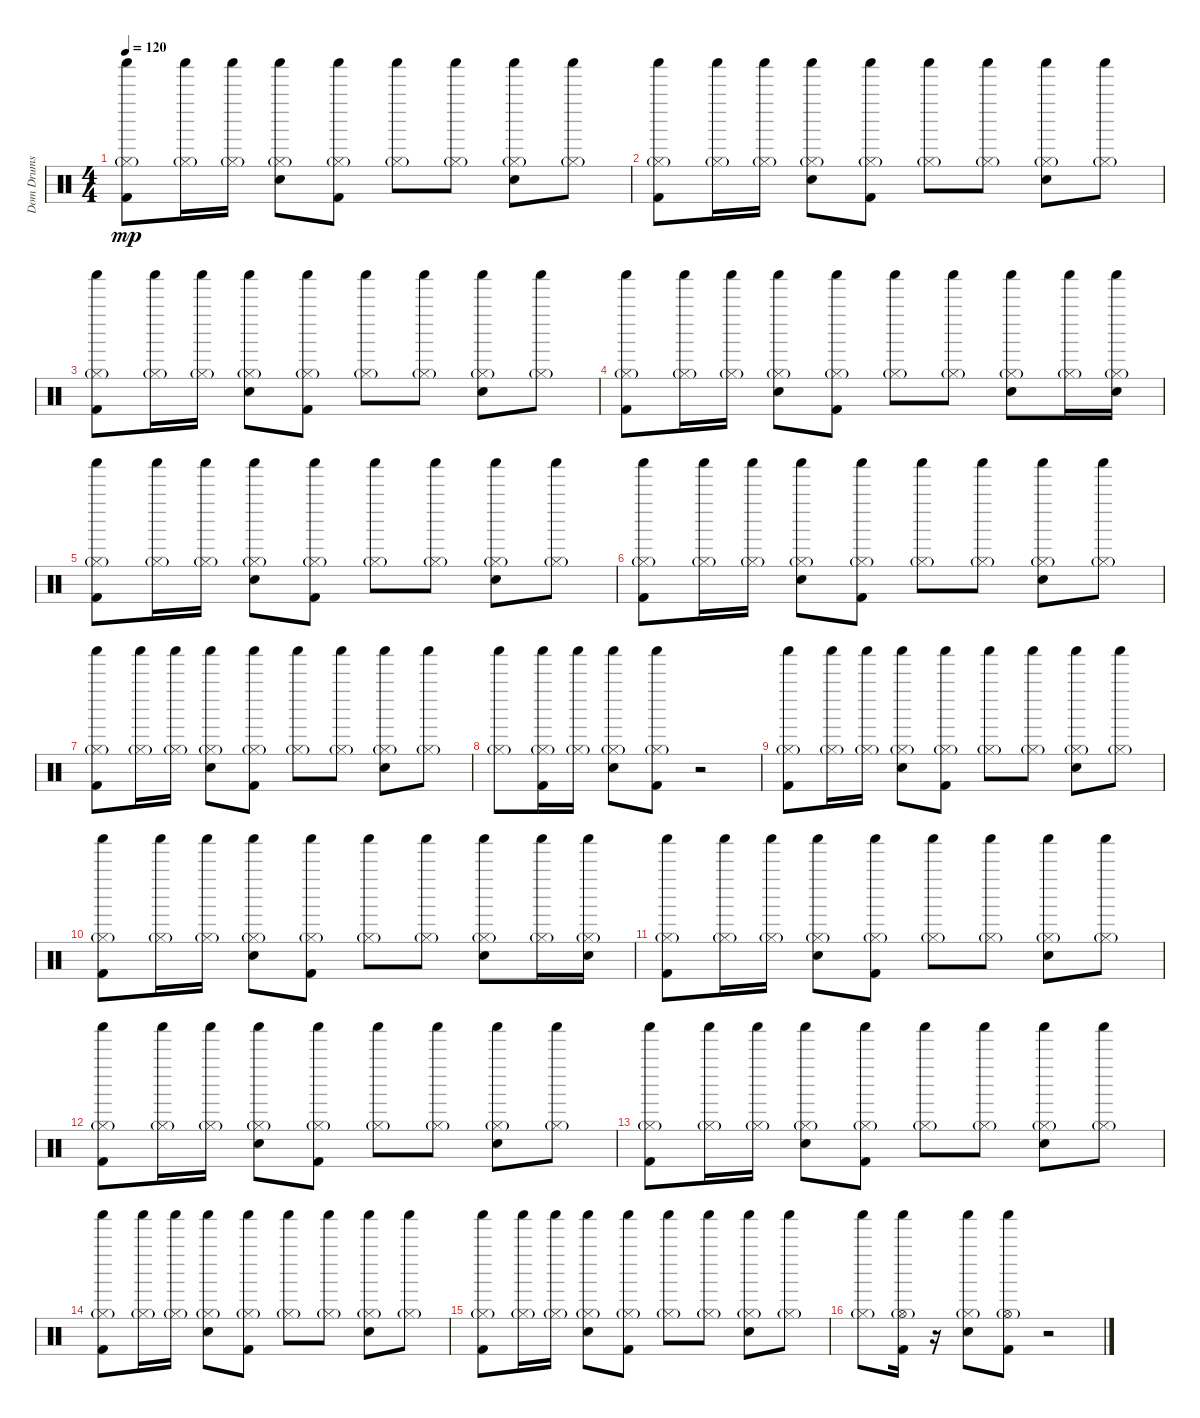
\track ("Dom Drums" "Dom Drums") {instrument percussion}
\staff {score}
\articulation defaults
\ts (4 4)
\tempo 120
\clef neutral
\ks c
("Shaker (hit)" "Hi-Hat (closed)"{g} "Kick (hit) 2").8{dy mp} ("Shaker (hit)" "Hi-Hat (closed)"{g}).16 ("Shaker (hit)" "Hi-Hat (closed)"{g}).16 ("Shaker (hit)" "Hi-Hat (closed)"{g} "Electric Snare (hit)").8 ("Shaker (hit)" "Hi-Hat (closed)"{g} "Kick (hit) 2").8 ("Shaker (hit)" "Hi-Hat (closed)"{g}).8 ("Shaker (hit)" "Hi-Hat (closed)"{g}).8 ("Shaker (hit)" "Hi-Hat (closed)"{g} "Electric Snare (hit)").8 ("Shaker (hit)" "Hi-Hat (closed)"{g}).8 |
("Shaker (hit)" "Hi-Hat (closed)"{g} "Kick (hit) 2").8 ("Shaker (hit)" "Hi-Hat (closed)"{g}).16 ("Shaker (hit)" "Hi-Hat (closed)"{g}).16 ("Shaker (hit)" "Hi-Hat (closed)"{g} "Electric Snare (hit)").8 ("Shaker (hit)" "Hi-Hat (closed)"{g} "Kick (hit) 2").8 ("Shaker (hit)" "Hi-Hat (closed)"{g}).8 ("Shaker (hit)" "Hi-Hat (closed)"{g}).8 ("Shaker (hit)" "Hi-Hat (closed)"{g} "Electric Snare (hit)").8 ("Shaker (hit)" "Hi-Hat (closed)"{g}).8 |
("Shaker (hit)" "Hi-Hat (closed)"{g} "Kick (hit) 2").8 ("Shaker (hit)" "Hi-Hat (closed)"{g}).16 ("Shaker (hit)" "Hi-Hat (closed)"{g}).16 ("Shaker (hit)" "Hi-Hat (closed)"{g} "Electric Snare (hit)").8 ("Shaker (hit)" "Hi-Hat (closed)"{g} "Kick (hit) 2").8 ("Shaker (hit)" "Hi-Hat (closed)"{g}).8 ("Shaker (hit)" "Hi-Hat (closed)"{g}).8 ("Shaker (hit)" "Hi-Hat (closed)"{g} "Electric Snare (hit)").8 ("Shaker (hit)" "Hi-Hat (closed)"{g}).8 |
("Shaker (hit)" "Hi-Hat (closed)"{g} "Kick (hit) 2").8 ("Shaker (hit)" "Hi-Hat (closed)"{g}).16 ("Shaker (hit)" "Hi-Hat (closed)"{g}).16 ("Shaker (hit)" "Hi-Hat (closed)"{g} "Electric Snare (hit)").8 ("Shaker (hit)" "Hi-Hat (closed)"{g} "Kick (hit) 2").8 ("Shaker (hit)" "Hi-Hat (closed)"{g}).8 ("Shaker (hit)" "Hi-Hat (closed)"{g}).8 ("Shaker (hit)" "Hi-Hat (closed)"{g} "Electric Snare (hit)").8 ("Shaker (hit)" "Hi-Hat (closed)"{g}).16 ("Shaker (hit)" "Hi-Hat (closed)"{g} "Electric Snare (hit)").16 |
("Shaker (hit)" "Hi-Hat (closed)"{g} "Kick (hit) 2").8 ("Shaker (hit)" "Hi-Hat (closed)"{g}).16 ("Shaker (hit)" "Hi-Hat (closed)"{g}).16 ("Shaker (hit)" "Hi-Hat (closed)"{g} "Electric Snare (hit)").8 ("Shaker (hit)" "Hi-Hat (closed)"{g} "Kick (hit) 2").8 ("Shaker (hit)" "Hi-Hat (closed)"{g}).8 ("Shaker (hit)" "Hi-Hat (closed)"{g}).8 ("Shaker (hit)" "Hi-Hat (closed)"{g} "Electric Snare (hit)").8 ("Shaker (hit)" "Hi-Hat (closed)"{g}).8 |
("Shaker (hit)" "Hi-Hat (closed)"{g} "Kick (hit) 2").8 ("Shaker (hit)" "Hi-Hat (closed)"{g}).16 ("Shaker (hit)" "Hi-Hat (closed)"{g}).16 ("Shaker (hit)" "Hi-Hat (closed)"{g} "Electric Snare (hit)").8 ("Shaker (hit)" "Hi-Hat (closed)"{g} "Kick (hit) 2").8 ("Shaker (hit)" "Hi-Hat (closed)"{g}).8 ("Shaker (hit)" "Hi-Hat (closed)"{g}).8 ("Shaker (hit)" "Hi-Hat (closed)"{g} "Electric Snare (hit)").8 ("Shaker (hit)" "Hi-Hat (closed)"{g}).8 |
("Shaker (hit)" "Hi-Hat (closed)"{g} "Kick (hit) 2").8 ("Shaker (hit)" "Hi-Hat (closed)"{g}).16 ("Shaker (hit)" "Hi-Hat (closed)"{g}).16 ("Shaker (hit)" "Hi-Hat (closed)"{g} "Electric Snare (hit)").8 ("Shaker (hit)" "Hi-Hat (closed)"{g} "Kick (hit) 2").8 ("Shaker (hit)" "Hi-Hat (closed)"{g}).8 ("Shaker (hit)" "Hi-Hat (closed)"{g}).8 ("Shaker (hit)" "Hi-Hat (closed)"{g} "Electric Snare (hit)").8 ("Shaker (hit)" "Hi-Hat (closed)"{g}).8 |
("Shaker (hit)" "Hi-Hat (closed)"{g}).8 ("Shaker (hit)" "Hi-Hat (closed)"{g} "Kick (hit) 2").16 ("Shaker (hit)" "Hi-Hat (closed)"{g}).16 ("Shaker (hit)" "Hi-Hat (closed)"{g} "Electric Snare (hit)").8 ("Shaker (hit)" "Hi-Hat (closed)"{g} "Kick (hit) 2").8 r.2 |
("Shaker (hit)" "Hi-Hat (closed)"{g} "Kick (hit) 2").8 ("Shaker (hit)" "Hi-Hat (closed)"{g}).16 ("Shaker (hit)" "Hi-Hat (closed)"{g}).16 ("Shaker (hit)" "Hi-Hat (closed)"{g} "Electric Snare (hit)").8 ("Shaker (hit)" "Hi-Hat (closed)"{g} "Kick (hit) 2").8 ("Shaker (hit)" "Hi-Hat (closed)"{g}).8 ("Shaker (hit)" "Hi-Hat (closed)"{g}).8 ("Shaker (hit)" "Hi-Hat (closed)"{g} "Electric Snare (hit)").8 ("Shaker (hit)" "Hi-Hat (closed)"{g}).8 |
("Shaker (hit)" "Hi-Hat (closed)"{g} "Kick (hit) 2").8 ("Shaker (hit)" "Hi-Hat (closed)"{g}).16 ("Shaker (hit)" "Hi-Hat (closed)"{g}).16 ("Shaker (hit)" "Hi-Hat (closed)"{g} "Electric Snare (hit)").8 ("Shaker (hit)" "Hi-Hat (closed)"{g} "Kick (hit) 2").8 ("Shaker (hit)" "Hi-Hat (closed)"{g}).8 ("Shaker (hit)" "Hi-Hat (closed)"{g}).8 ("Shaker (hit)" "Hi-Hat (closed)"{g} "Electric Snare (hit)").8 ("Shaker (hit)" "Hi-Hat (closed)"{g}).16 ("Shaker (hit)" "Hi-Hat (closed)"{g} "Electric Snare (hit)").16 |
("Shaker (hit)" "Hi-Hat (closed)"{g} "Kick (hit) 2").8 ("Shaker (hit)" "Hi-Hat (closed)"{g}).16 ("Shaker (hit)" "Hi-Hat (closed)"{g}).16 ("Shaker (hit)" "Hi-Hat (closed)"{g} "Electric Snare (hit)").8 ("Shaker (hit)" "Hi-Hat (closed)"{g} "Kick (hit) 2").8 ("Shaker (hit)" "Hi-Hat (closed)"{g}).8 ("Shaker (hit)" "Hi-Hat (closed)"{g}).8 ("Shaker (hit)" "Hi-Hat (closed)"{g} "Electric Snare (hit)").8 ("Shaker (hit)" "Hi-Hat (closed)"{g}).8 |
("Shaker (hit)" "Hi-Hat (closed)"{g} "Kick (hit) 2").8 ("Shaker (hit)" "Hi-Hat (closed)"{g}).16 ("Shaker (hit)" "Hi-Hat (closed)"{g}).16 ("Shaker (hit)" "Hi-Hat (closed)"{g} "Electric Snare (hit)").8 ("Shaker (hit)" "Hi-Hat (closed)"{g} "Kick (hit) 2").8 ("Shaker (hit)" "Hi-Hat (closed)"{g}).8 ("Shaker (hit)" "Hi-Hat (closed)"{g}).8 ("Shaker (hit)" "Hi-Hat (closed)"{g} "Electric Snare (hit)").8 ("Shaker (hit)" "Hi-Hat (closed)"{g}).8 |
("Shaker (hit)" "Hi-Hat (closed)"{g} "Kick (hit) 2").8 ("Shaker (hit)" "Hi-Hat (closed)"{g}).16 ("Shaker (hit)" "Hi-Hat (closed)"{g}).16 ("Shaker (hit)" "Hi-Hat (closed)"{g} "Electric Snare (hit)").8 ("Shaker (hit)" "Hi-Hat (closed)"{g} "Kick (hit) 2").8 ("Shaker (hit)" "Hi-Hat (closed)"{g}).8 ("Shaker (hit)" "Hi-Hat (closed)"{g}).8 ("Shaker (hit)" "Hi-Hat (closed)"{g} "Electric Snare (hit)").8 ("Shaker (hit)" "Hi-Hat (closed)"{g}).8 |
("Shaker (hit)" "Hi-Hat (closed)"{g} "Kick (hit) 2").8 ("Shaker (hit)" "Hi-Hat (closed)"{g}).16 ("Shaker (hit)" "Hi-Hat (closed)"{g}).16 ("Shaker (hit)" "Hi-Hat (closed)"{g} "Electric Snare (hit)").8 ("Shaker (hit)" "Hi-Hat (closed)"{g} "Kick (hit) 2").8 ("Shaker (hit)" "Hi-Hat (closed)"{g}).8 ("Shaker (hit)" "Hi-Hat (closed)"{g}).8 ("Shaker (hit)" "Hi-Hat (closed)"{g} "Electric Snare (hit)").8 ("Shaker (hit)" "Hi-Hat (closed)"{g}).8 |
("Shaker (hit)" "Hi-Hat (closed)"{g} "Kick (hit) 2").8 ("Shaker (hit)" "Hi-Hat (closed)"{g}).16 ("Shaker (hit)" "Hi-Hat (closed)"{g}).16 ("Shaker (hit)" "Hi-Hat (closed)"{g} "Electric Snare (hit)").8 ("Shaker (hit)" "Hi-Hat (closed)"{g} "Kick (hit) 2").8 ("Shaker (hit)" "Hi-Hat (closed)"{g}).8 ("Shaker (hit)" "Hi-Hat (closed)"{g}).8 ("Shaker (hit)" "Hi-Hat (closed)"{g} "Electric Snare (hit)").8 ("Shaker (hit)" "Hi-Hat (closed)"{g}).8 |
("Shaker (hit)" "Hi-Hat (closed)"{g}).8 ("Shaker (hit)" "Hi-Hat (open)"{g} "Kick (hit) 2").16 r.16 ("Shaker (hit)" "Hi-Hat (closed)"{g} "Electric Snare (hit)").8 ("Shaker (hit)" "Hi-Hat (open)"{g} "Kick (hit) 2").8 r.2
